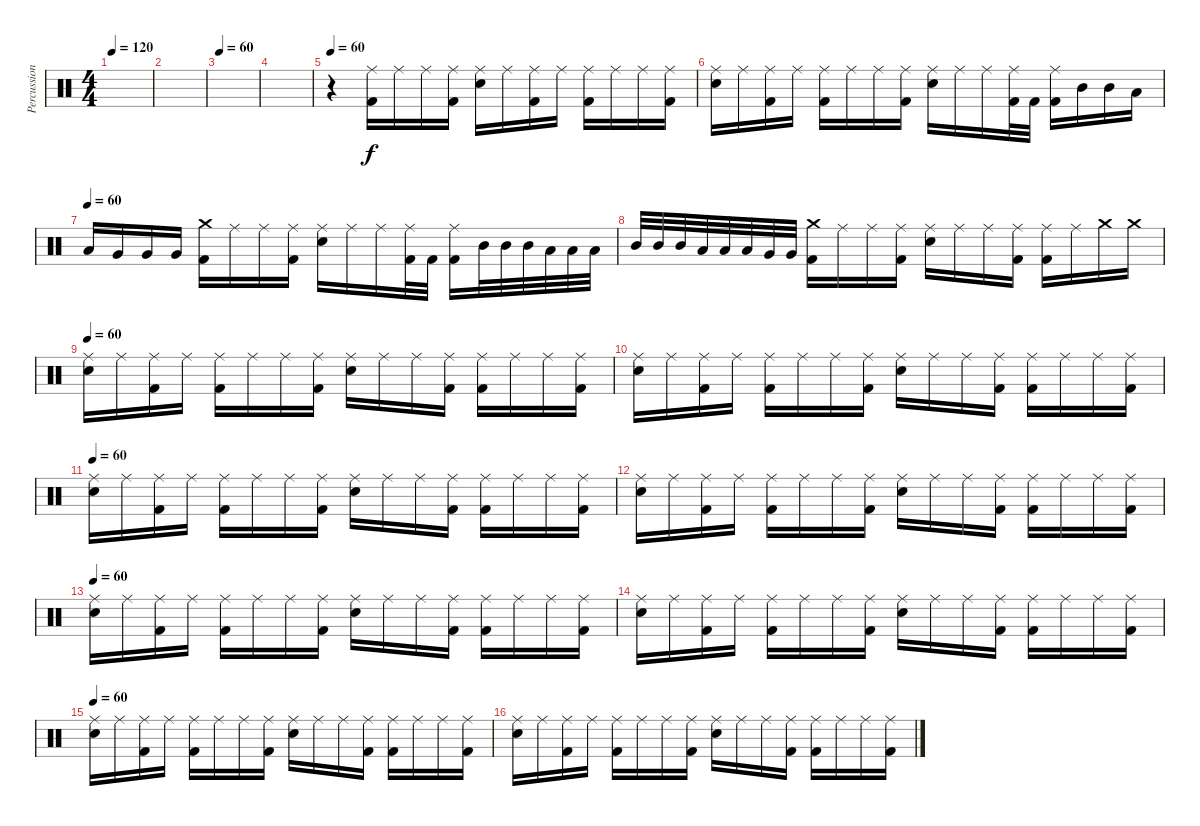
\track ("Percussions" "Percussion") {instrument percussion}
\staff {score}
\articulation defaults
\ts (4 4)
\tempo 120
\tempo 60
\tempo 120
\clef neutral
\ks c
|
|
\tempo 60
|
|
\tempo 60
r.4 ("Ride (middle)" "Kick (hit) 2").16 "Ride (middle)".16 "Ride (middle)".16 ("Ride (middle)" "Kick (hit) 2").16 ("Ride (middle)" "Electric Snare (hit)").16 "Ride (middle)".16 ("Ride (middle)" "Kick (hit) 2").16 "Ride (middle)".16 ("Ride (middle)" "Kick (hit) 2").16 "Ride (middle)".16 "Ride (middle)".16 ("Ride (middle)" "Kick (hit) 2").16 |
("Ride (middle)" "Electric Snare (hit)").16 "Ride (middle)".16 ("Ride (middle)" "Kick (hit) 2").16 "Ride (middle)".16 ("Ride (middle)" "Kick (hit) 2").16 "Ride (middle)".16 "Ride (middle)".16 ("Ride (middle)" "Kick (hit) 2").16 ("Ride (middle)" "Electric Snare (hit)").16 "Ride (middle)".16 "Ride (middle)".16 ("Ride (middle)" "Kick (hit) 2").32 "Kick (hit) 2".32 ("Ride (middle)" "Kick (hit) 2").16 "Mid Tom (hit)".16 "Mid Tom (hit)".16 "Low Tom (hit)".16 |
\tempo (60)
"Low Tom (hit)".16 "Very Low Tom (hit)".16 "Very Low Tom (hit)".16 "Very Low Tom (hit)".16 ("Crash medium (hit)" "Kick (hit) 2").16 "Ride (middle)".16 "Ride (middle)".16 ("Ride (middle)" "Kick (hit) 2").16 ("Ride (middle)" "Electric Snare (hit)").16 "Ride (middle)".16 "Ride (middle)".16 ("Ride (middle)" "Kick (hit) 2").32 "Kick (hit) 2".32 ("Ride (middle)" "Kick (hit) 2").16 "Mid Tom (hit)".32 "Mid Tom (hit)".32 "Mid Tom (hit)".32 "Low Tom (hit)".32 "Low Tom (hit)".32 "Low Tom (hit)".32 |
"Mid Tom (hit)".32 "Mid Tom (hit)".32 "Mid Tom (hit)".32 "Low Tom (hit)".32 "Low Tom (hit)".32 "Low Tom (hit)".32 "Very Low Tom (hit)".32 "Very Low Tom (hit)".32 ("Crash medium (hit)" "Kick (hit) 2").16 "Ride (middle)".16 "Ride (middle)".16 ("Ride (middle)" "Kick (hit) 2").16 ("Ride (middle)" "Electric Snare (hit)").16 "Ride (middle)".16 "Ride (middle)".16 ("Ride (middle)" "Kick (hit) 2").16 ("Ride (middle)" "Kick (hit) 2").16 "Ride (middle)".16 "Crash medium (hit)".16 "Crash medium (hit)".16 |
\tempo 60
("Ride (middle)" "Electric Snare (hit)").16 "Ride (middle)".16 ("Ride (middle)" "Kick (hit) 2").16 "Ride (middle)".16 ("Ride (middle)" "Kick (hit) 2").16 "Ride (middle)".16 "Ride (middle)".16 ("Ride (middle)" "Kick (hit) 2").16 ("Ride (middle)" "Electric Snare (hit)").16 "Ride (middle)".16 "Ride (middle)".16 ("Ride (middle)" "Kick (hit) 2").16 ("Ride (middle)" "Kick (hit) 2").16 "Ride (middle)".16 "Ride (middle)".16 ("Ride (middle)" "Kick (hit) 2").16 |
("Ride (middle)" "Electric Snare (hit)").16 "Ride (middle)".16 ("Ride (middle)" "Kick (hit) 2").16 "Ride (middle)".16 ("Ride (middle)" "Kick (hit) 2").16 "Ride (middle)".16 "Ride (middle)".16 ("Ride (middle)" "Kick (hit) 2").16 ("Ride (middle)" "Electric Snare (hit)").16 "Ride (middle)".16 "Ride (middle)".16 ("Ride (middle)" "Kick (hit) 2").16 ("Ride (middle)" "Kick (hit) 2").16 "Ride (middle)".16 "Ride (middle)".16 ("Ride (middle)" "Kick (hit) 2").16 |
\tempo 60
("Ride (middle)" "Electric Snare (hit)").16 "Ride (middle)".16 ("Ride (middle)" "Kick (hit) 2").16 "Ride (middle)".16 ("Ride (middle)" "Kick (hit) 2").16 "Ride (middle)".16 "Ride (middle)".16 ("Ride (middle)" "Kick (hit) 2").16 ("Ride (middle)" "Electric Snare (hit)").16 "Ride (middle)".16 "Ride (middle)".16 ("Ride (middle)" "Kick (hit) 2").16 ("Ride (middle)" "Kick (hit) 2").16 "Ride (middle)".16 "Ride (middle)".16 ("Ride (middle)" "Kick (hit) 2").16 |
("Ride (middle)" "Electric Snare (hit)").16 "Ride (middle)".16 ("Ride (middle)" "Kick (hit) 2").16 "Ride (middle)".16 ("Ride (middle)" "Kick (hit) 2").16 "Ride (middle)".16 "Ride (middle)".16 ("Ride (middle)" "Kick (hit) 2").16 ("Ride (middle)" "Electric Snare (hit)").16 "Ride (middle)".16 "Ride (middle)".16 ("Ride (middle)" "Kick (hit) 2").16 ("Ride (middle)" "Kick (hit) 2").16 "Ride (middle)".16 "Ride (middle)".16 ("Ride (middle)" "Kick (hit) 2").16 |
\tempo 60
("Ride (middle)" "Electric Snare (hit)").16 "Ride (middle)".16 ("Ride (middle)" "Kick (hit) 2").16 "Ride (middle)".16 ("Ride (middle)" "Kick (hit) 2").16 "Ride (middle)".16 "Ride (middle)".16 ("Ride (middle)" "Kick (hit) 2").16 ("Ride (middle)" "Electric Snare (hit)").16 "Ride (middle)".16 "Ride (middle)".16 ("Ride (middle)" "Kick (hit) 2").16 ("Ride (middle)" "Kick (hit) 2").16 "Ride (middle)".16 "Ride (middle)".16 ("Ride (middle)" "Kick (hit) 2").16 |
("Ride (middle)" "Electric Snare (hit)").16 "Ride (middle)".16 ("Ride (middle)" "Kick (hit) 2").16 "Ride (middle)".16 ("Ride (middle)" "Kick (hit) 2").16 "Ride (middle)".16 "Ride (middle)".16 ("Ride (middle)" "Kick (hit) 2").16 ("Ride (middle)" "Electric Snare (hit)").16 "Ride (middle)".16 "Ride (middle)".16 ("Ride (middle)" "Kick (hit) 2").16 ("Ride (middle)" "Kick (hit) 2").16 "Ride (middle)".16 "Ride (middle)".16 ("Ride (middle)" "Kick (hit) 2").16 |
\tempo 60
("Ride (middle)" "Electric Snare (hit)").16 "Ride (middle)".16 ("Ride (middle)" "Kick (hit) 2").16 "Ride (middle)".16 ("Ride (middle)" "Kick (hit) 2").16 "Ride (middle)".16 "Ride (middle)".16 ("Ride (middle)" "Kick (hit) 2").16 ("Ride (middle)" "Electric Snare (hit)").16 "Ride (middle)".16 "Ride (middle)".16 ("Ride (middle)" "Kick (hit) 2").16 ("Ride (middle)" "Kick (hit) 2").16 "Ride (middle)".16 "Ride (middle)".16 ("Ride (middle)" "Kick (hit) 2").16 |
("Ride (middle)" "Electric Snare (hit)").16 "Ride (middle)".16 ("Ride (middle)" "Kick (hit) 2").16 "Ride (middle)".16 ("Ride (middle)" "Kick (hit) 2").16 "Ride (middle)".16 "Ride (middle)".16 ("Ride (middle)" "Kick (hit) 2").16 ("Ride (middle)" "Electric Snare (hit)").16 "Ride (middle)".16 "Ride (middle)".16 ("Ride (middle)" "Kick (hit) 2").16 ("Ride (middle)" "Kick (hit) 2").16 "Ride (middle)".16 "Ride (middle)".16 ("Ride (middle)" "Kick (hit) 2").16
